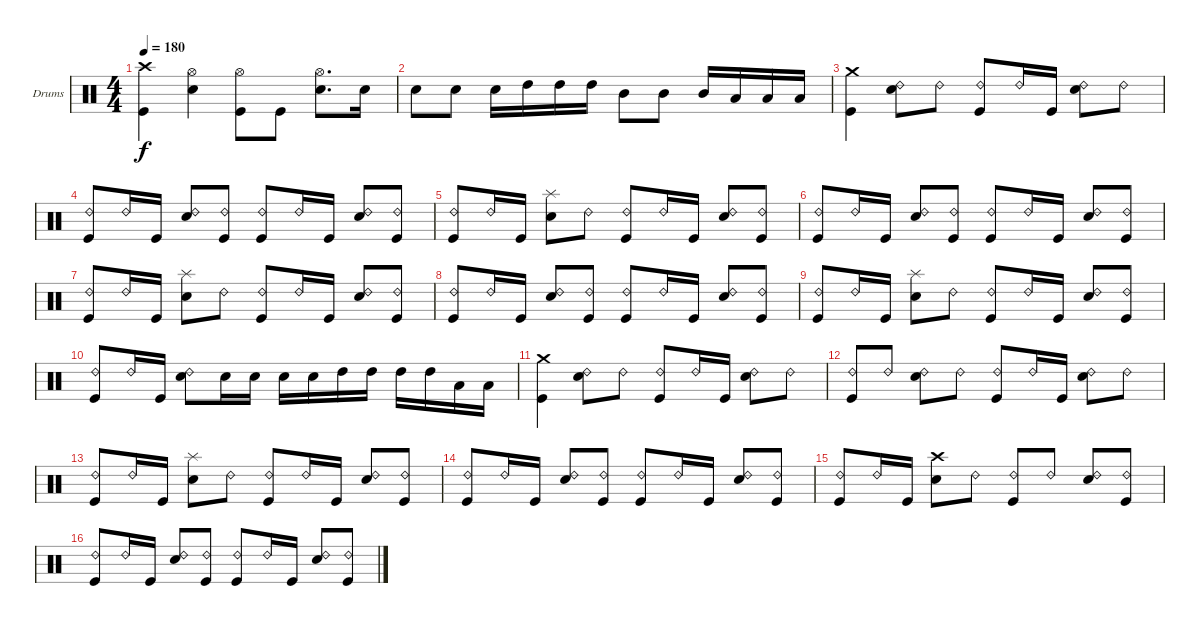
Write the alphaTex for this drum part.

\bracketExtendMode groupsimilarinstruments
\firstSystemTrackNameOrientation horizontal
\otherSystemsTrackNameOrientation horizontal
\track ("Dave Lombardo" "Drums") {instrument percussion}
\staff {score}
\articulation defaults
\ts (4 4)
\tempo 180
\clef neutral
\ks c
("Kick (hit)" "Crash high (hit)").4{dy f} ("Snare (hit) 2" "Hi-Hat (open)").4 ("Kick (hit)" "Hi-Hat (open)").8 "Kick (hit)".8 ("Snare (hit) 2" "Hi-Hat (open)").8{d} "Snare (hit) 2".16 |
"Snare (hit) 2".8 "Snare (hit) 2".8 "Snare (hit) 2".16 "High Tom (hit)".16 "High Tom (hit)".16 "High Tom (hit)".16 "Mid Tom (hit)".8 "Mid Tom (hit)".8 "Mid Tom (hit)".16 "Low Tom (hit)".16 "Low Tom (hit)".16 "Low Tom (hit)".16 |
("Kick (hit)" "Crash medium (hit)").4 ("Snare (hit) 2" "Ride (bell) 2").8 "Ride (bell) 2".8 ("Kick (hit)" "Ride (bell) 2").8 "Ride (bell) 2".16 "Kick (hit)".16 ("Snare (hit) 2" "Ride (bell) 2").8 "Ride (bell) 2".8 |
("Kick (hit)" "Ride (bell) 2").8 "Ride (bell) 2".16 "Kick (hit)".16 ("Snare (hit) 2" "Ride (bell) 2").8 ("Kick (hit)" "Ride (bell) 2").8 ("Kick (hit)" "Ride (bell) 2").8 "Ride (bell) 2".16 "Kick (hit)".16 ("Snare (hit) 2" "Ride (bell) 2").8 ("Kick (hit)" "Ride (bell) 2").8 |
("Kick (hit)" "Ride (bell) 2").8 "Ride (bell) 2".16 "Kick (hit)".16 ("Snare (hit) 2" "Splash (hit)").8 "Ride (bell) 2".8 ("Kick (hit)" "Ride (bell) 2").8 "Ride (bell) 2".16 "Kick (hit)".16 ("Snare (hit) 2" "Ride (bell) 2").8 ("Kick (hit)" "Ride (bell) 2").8 |
("Kick (hit)" "Ride (bell) 2").8 "Ride (bell) 2".16 "Kick (hit)".16 ("Snare (hit) 2" "Ride (bell) 2").8 ("Kick (hit)" "Ride (bell) 2").8 ("Kick (hit)" "Ride (bell) 2").8 "Ride (bell) 2".16 "Kick (hit)".16 ("Snare (hit) 2" "Ride (bell) 2").8 ("Kick (hit)" "Ride (bell) 2").8 |
("Kick (hit)" "Ride (bell) 2").8 "Ride (bell) 2".16 "Kick (hit)".16 ("Snare (hit) 2" "Splash (hit)").8 "Ride (bell) 2".8 ("Kick (hit)" "Ride (bell) 2").8 "Ride (bell) 2".16 "Kick (hit)".16 ("Snare (hit) 2" "Ride (bell) 2").8 ("Kick (hit)" "Ride (bell) 2").8 |
("Kick (hit)" "Ride (bell) 2").8 "Ride (bell) 2".16 "Kick (hit)".16 ("Snare (hit) 2" "Ride (bell) 2").8 ("Kick (hit)" "Ride (bell) 2").8 ("Kick (hit)" "Ride (bell) 2").8 "Ride (bell) 2".16 "Kick (hit)".16 ("Snare (hit) 2" "Ride (bell) 2").8 ("Kick (hit)" "Ride (bell) 2").8 |
("Kick (hit)" "Ride (bell) 2").8 "Ride (bell) 2".16 "Kick (hit)".16 ("Snare (hit) 2" "Splash (hit)").8 "Ride (bell) 2".8 ("Kick (hit)" "Ride (bell) 2").8 "Ride (bell) 2".16 "Kick (hit)".16 ("Snare (hit) 2" "Ride (bell) 2").8 ("Kick (hit)" "Ride (bell) 2").8 |
("Kick (hit)" "Ride (bell) 2").8 "Ride (bell) 2".16 "Kick (hit)".16 ("Snare (hit) 2" "Ride (bell) 2").8 "Snare (hit) 2".16 "Snare (hit) 2".16 "Snare (hit) 2".16 "Snare (hit) 2".16 "High Tom (hit)".16 "High Tom (hit)".16 "High Tom (hit)".16 "High Tom (hit)".16 "Low Tom (hit)".16 "Low Tom (hit)".16 |
("Kick (hit)" "Crash medium (hit)").4 ("Snare (hit) 2" "Ride (bell) 2").8 "Ride (bell) 2".8 ("Kick (hit)" "Ride (bell) 2").8 "Ride (bell) 2".16 "Kick (hit)".16 ("Snare (hit) 2" "Ride (bell) 2").8 "Ride (bell) 2".8 |
("Kick (hit)" "Ride (bell) 2").8 "Ride (bell) 2".8 ("Snare (hit) 2" "Ride (bell) 2").8 "Ride (bell) 2".8 ("Kick (hit)" "Ride (bell) 2").8 "Ride (bell) 2".16 "Kick (hit)".16 ("Snare (hit) 2" "Ride (bell) 2").8 "Ride (bell) 2".8 |
("Kick (hit)" "Ride (bell) 2").8 "Ride (bell) 2".16 "Kick (hit)".16 ("Snare (hit) 2" "Splash (hit)").8 "Ride (bell) 2".8 ("Kick (hit)" "Ride (bell) 2").8 "Ride (bell) 2".16 "Kick (hit)".16 ("Snare (hit) 2" "Ride (bell) 2").8 ("Kick (hit)" "Ride (bell) 2").8 |
("Kick (hit)" "Ride (bell) 2").8 "Ride (bell) 2".16 "Kick (hit)".16 ("Snare (hit) 2" "Ride (bell) 2").8 ("Kick (hit)" "Ride (bell) 2").8 ("Kick (hit)" "Ride (bell) 2").8 "Ride (bell) 2".16 "Kick (hit)".16 ("Snare (hit) 2" "Ride (bell) 2").8 ("Kick (hit)" "Ride (bell) 2").8 |
("Kick (hit)" "Ride (bell) 2").8 "Ride (bell) 2".16 "Kick (hit)".16 ("Snare (hit) 2" "Crash high (hit)").8 "Ride (bell) 2".8 ("Kick (hit)" "Ride (bell) 2").8 "Ride (bell) 2".8 ("Snare (hit) 2" "Ride (bell) 2").8 ("Kick (hit)" "Ride (bell) 2").8 |
("Kick (hit)" "Ride (bell) 2").8 "Ride (bell) 2".16 "Kick (hit)".16 ("Snare (hit) 2" "Ride (bell) 2").8 ("Kick (hit)" "Ride (bell) 2").8 ("Kick (hit)" "Ride (bell) 2").8 "Ride (bell) 2".16 "Kick (hit)".16 ("Snare (hit) 2" "Ride (bell) 2").8 ("Kick (hit)" "Ride (bell) 2").8
